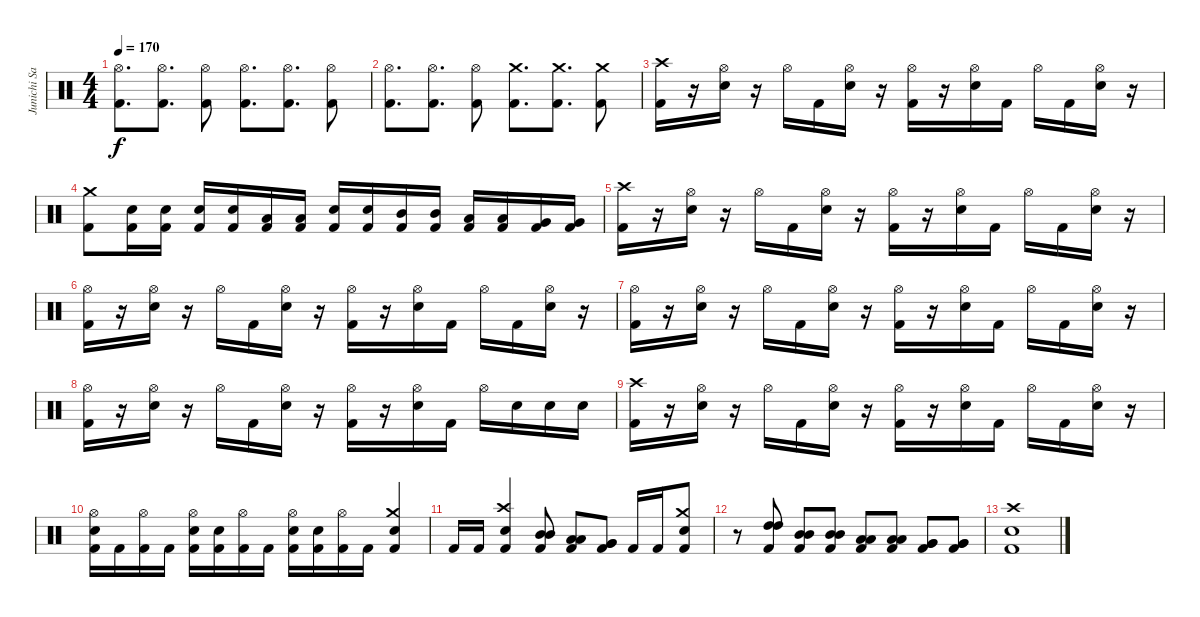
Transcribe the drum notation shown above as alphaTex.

\track ("Junichi Sato" "Junichi Sa") {instrument percussion}
\staff {score}
\articulation defaults
\ts (4 4)
\tempo 170
\clef neutral
\ks c
("Hi-Hat (open)" "Kick (hit) 2").8{d dy f} ("Hi-Hat (open)" "Kick (hit) 2").8{d} ("Hi-Hat (open)" "Kick (hit) 2").8 ("Hi-Hat (open)" "Kick (hit) 2").8{d} ("Hi-Hat (open)" "Kick (hit) 2").8{d} ("Hi-Hat (open)" "Kick (hit) 2").8 |
("Hi-Hat (open)" "Kick (hit) 2").8{d} ("Hi-Hat (open)" "Kick (hit) 2").8{d} ("Hi-Hat (open)" "Kick (hit) 2").8 ("Crash medium (hit)" "Kick (hit) 2").8{d} ("Crash medium (hit)" "Kick (hit) 2").8{d} ("Crash medium (hit)" "Kick (hit) 2").8 |
("Crash high (hit)" "Kick (hit) 2").16 r.16 ("Hi-Hat (open)" "Electric Snare (hit)").16 r.16 "Hi-Hat (open)".16 "Kick (hit) 2".16 ("Hi-Hat (open)" "Electric Snare (hit)").16 r.16 ("Hi-Hat (open)" "Kick (hit) 2").16 r.16 ("Hi-Hat (open)" "Electric Snare (hit)").16 "Kick (hit) 2".16 "Hi-Hat (open)".16 "Kick (hit) 2".16 ("Hi-Hat (open)" "Electric Snare (hit)").16 r.16 |
("Crash medium (hit)" "Kick (hit) 2").8 ("Electric Snare (hit)" "Kick (hit) 2").16 ("Electric Snare (hit)" "Kick (hit) 2").16 ("Electric Snare (hit)" "Kick (hit) 2").16 ("Electric Snare (hit)" "Kick (hit) 2").16 ("Low Tom (hit)" "Kick (hit) 2").16 ("Low Tom (hit)" "Kick (hit) 2").16 ("Electric Snare (hit)" "Kick (hit) 2").16 ("Electric Snare (hit)" "Kick (hit) 2").16 ("Mid Tom (hit)" "Kick (hit) 2").16 ("Mid Tom (hit)" "Kick (hit) 2").16 ("Low Tom (hit)" "Kick (hit) 2").16 ("Low Tom (hit)" "Kick (hit) 2").16 ("Very Low Tom (hit)" "Kick (hit) 2").16 ("Very Low Tom (hit)" "Kick (hit) 2").16 |
("Crash high (hit)" "Kick (hit) 2").16 r.16 ("Hi-Hat (open)" "Electric Snare (hit)").16 r.16 "Hi-Hat (open)".16 "Kick (hit) 2".16 ("Hi-Hat (open)" "Electric Snare (hit)").16 r.16 ("Hi-Hat (open)" "Kick (hit) 2").16 r.16 ("Hi-Hat (open)" "Electric Snare (hit)").16 "Kick (hit) 2".16 "Hi-Hat (open)".16 "Kick (hit) 2".16 ("Hi-Hat (open)" "Electric Snare (hit)").16 r.16 |
("Hi-Hat (open)" "Kick (hit) 2").16 r.16 ("Hi-Hat (open)" "Electric Snare (hit)").16 r.16 "Hi-Hat (open)".16 "Kick (hit) 2".16 ("Hi-Hat (open)" "Electric Snare (hit)").16 r.16 ("Hi-Hat (open)" "Kick (hit) 2").16 r.16 ("Hi-Hat (open)" "Electric Snare (hit)").16 "Kick (hit) 2".16 "Hi-Hat (open)".16 "Kick (hit) 2".16 ("Hi-Hat (open)" "Electric Snare (hit)").16 r.16 |
("Hi-Hat (open)" "Kick (hit) 2").16 r.16 ("Hi-Hat (open)" "Electric Snare (hit)").16 r.16 "Hi-Hat (open)".16 "Kick (hit) 2".16 ("Hi-Hat (open)" "Electric Snare (hit)").16 r.16 ("Hi-Hat (open)" "Kick (hit) 2").16 r.16 ("Hi-Hat (open)" "Electric Snare (hit)").16 "Kick (hit) 2".16 "Hi-Hat (open)".16 "Kick (hit) 2".16 ("Hi-Hat (open)" "Electric Snare (hit)").16 r.16 |
("Hi-Hat (open)" "Kick (hit) 2").16 r.16 ("Hi-Hat (open)" "Electric Snare (hit)").16 r.16 "Hi-Hat (open)".16 "Kick (hit) 2".16 ("Hi-Hat (open)" "Electric Snare (hit)").16 r.16 ("Hi-Hat (open)" "Kick (hit) 2").16 r.16 ("Hi-Hat (open)" "Electric Snare (hit)").16 "Kick (hit) 2".16 "Hi-Hat (open)".16 "Electric Snare (hit)".16 "Electric Snare (hit)".16 "Electric Snare (hit)".16 |
("Crash high (hit)" "Kick (hit) 2").16 r.16 ("Hi-Hat (open)" "Electric Snare (hit)").16 r.16 "Hi-Hat (open)".16 "Kick (hit) 2".16 ("Hi-Hat (open)" "Electric Snare (hit)").16 r.16 ("Hi-Hat (open)" "Kick (hit) 2").16 r.16 ("Hi-Hat (open)" "Electric Snare (hit)").16 "Kick (hit) 2".16 "Hi-Hat (open)".16 "Kick (hit) 2".16 ("Hi-Hat (open)" "Electric Snare (hit)").16 r.16 |
("Hi-Hat (open)" "Electric Snare (hit)" "Kick (hit) 2").16 "Kick (hit) 2".16 ("Hi-Hat (open)" "Kick (hit) 2").16 "Kick (hit) 2".16 ("Hi-Hat (open)" "Electric Snare (hit)" "Kick (hit) 2").16 ("Electric Snare (hit)" "Kick (hit) 2").16 ("Hi-Hat (open)" "Kick (hit) 2").16 "Kick (hit) 2".16 ("Hi-Hat (open)" "Electric Snare (hit)" "Kick (hit) 2").16 ("Electric Snare (hit)" "Kick (hit) 2").16 ("Hi-Hat (open)" "Kick (hit) 2").16 "Kick (hit) 2".16 ("Crash medium (hit)" "Electric Snare (hit)" "Kick (hit) 2").4 |
"Kick (hit) 2".16 "Kick (hit) 2".16 ("Crash high (hit)" "Electric Snare (hit)" "Kick (hit) 2").4 ("Mid Tom (hit)" "Mid Tom (hit)" "Kick (hit) 2").8 ("Low Tom (hit)" "Low Tom (hit)" "Kick (hit) 2").8 ("Very Low Tom (hit)" "Very Low Tom (hit)" "Kick (hit) 2").8 "Kick (hit) 2".16 "Kick (hit) 2".16 ("Crash medium (hit)" "Electric Snare (hit)" "Kick (hit) 2").8 |
r.8 ("High Tom (hit)" "High Tom (hit)" "Kick (hit) 2").8 ("Mid Tom (hit)" "Mid Tom (hit)" "Kick (hit) 2").8 ("Mid Tom (hit)" "Mid Tom (hit)" "Kick (hit) 2").8 ("Low Tom (hit)" "Low Tom (hit)" "Kick (hit) 2").8 ("Low Tom (hit)" "Low Tom (hit)" "Kick (hit) 2").8 ("Very Low Tom (hit)" "Very Low Tom (hit)" "Kick (hit) 2").8 ("Very Low Tom (hit)" "Very Low Tom (hit)" "Kick (hit) 2").8 |
("Crash high (hit)" "Electric Snare (hit)" "Kick (hit) 2").1
